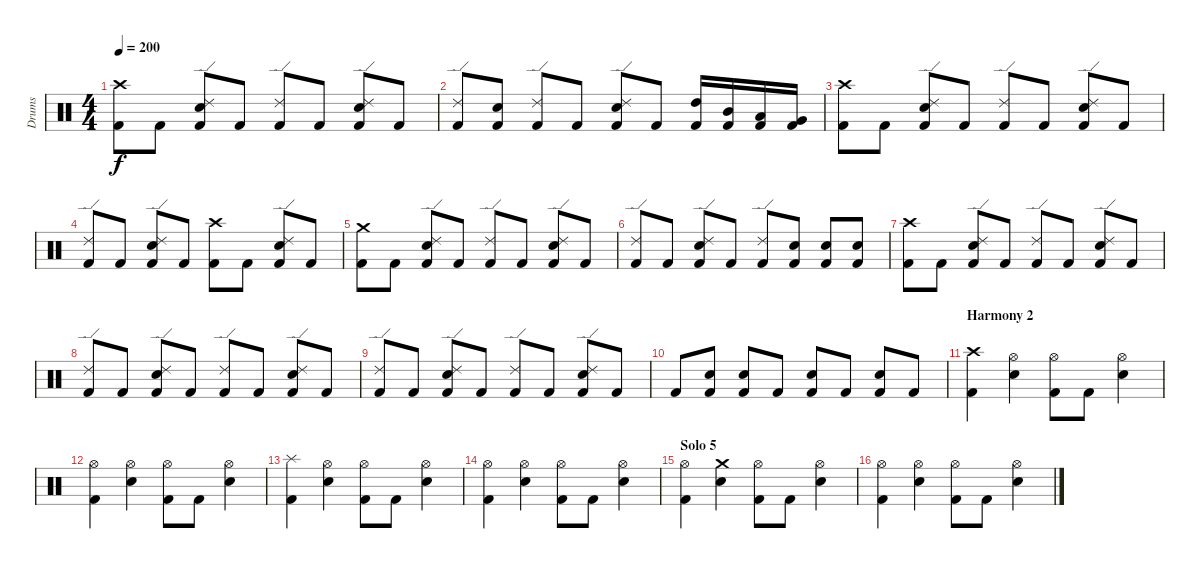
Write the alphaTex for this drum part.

\track ("Drums" "Drums") {instrument percussion}
\staff {score}
\articulation defaults
\ts (4 4)
\tempo 200
\clef neutral
\ks c
("Kick (hit) 2" "Crash high (hit)").8{dy f} "Kick (hit) 2".8 ("Kick (hit) 2" "Electric Snare (hit)" "Ride (edge) 2").8 "Kick (hit) 2".8 ("Kick (hit) 2" "Ride (edge) 2").8 "Kick (hit) 2".8 ("Kick (hit) 2" "Electric Snare (hit)" "Ride (edge) 2").8 "Kick (hit) 2".8 |
("Kick (hit) 2" "Ride (edge) 2").8 ("Kick (hit) 2" "Electric Snare (hit)").8 ("Kick (hit) 2" "Ride (edge) 2").8 "Kick (hit) 2".8 ("Kick (hit) 2" "Electric Snare (hit)" "Ride (edge) 2").8 "Kick (hit) 2".8 ("Kick (hit) 2" "High Tom (hit)").16 ("Kick (hit) 2" "Mid Tom (hit)").16 ("Kick (hit) 2" "Low Tom (hit)").16 ("Kick (hit) 2" "Very Low Tom (hit)").16 |
\section ("" "")
("Kick (hit) 2" "Crash high (hit)").8 "Kick (hit) 2".8 ("Kick (hit) 2" "Electric Snare (hit)" "Ride (edge) 2").8 "Kick (hit) 2".8 ("Kick (hit) 2" "Ride (edge) 2").8 "Kick (hit) 2".8 ("Kick (hit) 2" "Electric Snare (hit)" "Ride (edge) 2").8 "Kick (hit) 2".8 |
("Kick (hit) 2" "Ride (edge) 2").8 "Kick (hit) 2".8 ("Kick (hit) 2" "Electric Snare (hit)" "Ride (edge) 2").8 "Kick (hit) 2".8 ("Kick (hit) 2" "Crash high (hit)").8 "Kick (hit) 2".8 ("Kick (hit) 2" "Electric Snare (hit)" "Ride (edge) 2").8 "Kick (hit) 2".8 |
("Kick (hit) 2" "Crash medium (hit)").8 "Kick (hit) 2".8 ("Kick (hit) 2" "Electric Snare (hit)" "Ride (edge) 2").8 "Kick (hit) 2".8 ("Kick (hit) 2" "Ride (edge) 2").8 "Kick (hit) 2".8 ("Kick (hit) 2" "Electric Snare (hit)" "Ride (edge) 2").8 "Kick (hit) 2".8 |
("Kick (hit) 2" "Ride (edge) 2").8 "Kick (hit) 2".8 ("Kick (hit) 2" "Electric Snare (hit)" "Ride (edge) 2").8 "Kick (hit) 2".8 ("Kick (hit) 2" "Ride (edge) 2").8 ("Kick (hit) 2" "Electric Snare (hit)").8 ("Kick (hit) 2" "Electric Snare (hit)").8 ("Kick (hit) 2" "Electric Snare (hit)").8 |
("Kick (hit) 2" "Crash high (hit)").8 "Kick (hit) 2".8 ("Kick (hit) 2" "Electric Snare (hit)" "Ride (edge) 2").8 "Kick (hit) 2".8 ("Kick (hit) 2" "Ride (edge) 2").8 "Kick (hit) 2".8 ("Kick (hit) 2" "Electric Snare (hit)" "Ride (edge) 2").8 "Kick (hit) 2".8 |
("Kick (hit) 2" "Ride (edge) 2").8 "Kick (hit) 2".8 ("Kick (hit) 2" "Electric Snare (hit)" "Ride (edge) 2").8 "Kick (hit) 2".8 ("Kick (hit) 2" "Ride (edge) 2").8 "Kick (hit) 2".8 ("Kick (hit) 2" "Electric Snare (hit)" "Ride (edge) 2").8 "Kick (hit) 2".8 |
("Kick (hit) 2" "Ride (edge) 2").8 "Kick (hit) 2".8 ("Kick (hit) 2" "Electric Snare (hit)" "Ride (edge) 2").8 "Kick (hit) 2".8 ("Kick (hit) 2" "Ride (edge) 2").8 "Kick (hit) 2".8 ("Kick (hit) 2" "Electric Snare (hit)" "Ride (edge) 2").8 "Kick (hit) 2".8 |
"Kick (hit) 2".8 ("Kick (hit) 2" "Electric Snare (hit)").8 ("Kick (hit) 2" "Electric Snare (hit)").8 "Kick (hit) 2".8 ("Kick (hit) 2" "Electric Snare (hit)").8 "Kick (hit) 2".8 ("Kick (hit) 2" "Electric Snare (hit)").8 "Kick (hit) 2".8 |
\section ("" "Harmony 2")
("Kick (hit) 2" "Crash high (hit)").4 ("Electric Snare (hit)" "Hi-Hat (open)").4 ("Kick (hit) 2" "Hi-Hat (open)").8 "Kick (hit) 2".8 ("Electric Snare (hit)" "Hi-Hat (open)").4 |
("Kick (hit) 2" "Hi-Hat (open)").4 ("Electric Snare (hit)" "Hi-Hat (open)").4 ("Kick (hit) 2" "Hi-Hat (open)").8 "Kick (hit) 2".8 ("Electric Snare (hit)" "Hi-Hat (open)").4 |
("Kick (hit) 2" "Splash (hit)").4 ("Electric Snare (hit)" "Hi-Hat (open)").4 ("Kick (hit) 2" "Hi-Hat (open)").8 "Kick (hit) 2".8 ("Electric Snare (hit)" "Hi-Hat (open)").4 |
("Kick (hit) 2" "Hi-Hat (open)").4 ("Electric Snare (hit)" "Hi-Hat (open)").4 ("Kick (hit) 2" "Hi-Hat (open)").8 "Kick (hit) 2".8 ("Electric Snare (hit)" "Hi-Hat (open)").4 |
\section ("" "Solo 5")
("Kick (hit) 2" "Hi-Hat (open)").4 ("Electric Snare (hit)" "Crash medium (hit)").4 ("Kick (hit) 2" "Hi-Hat (open)").8 "Kick (hit) 2".8 ("Electric Snare (hit)" "Hi-Hat (open)").4 |
("Kick (hit) 2" "Hi-Hat (open)").4 ("Electric Snare (hit)" "Hi-Hat (open)").4 ("Kick (hit) 2" "Hi-Hat (open)").8 "Kick (hit) 2".8 ("Electric Snare (hit)" "Hi-Hat (open)").4
